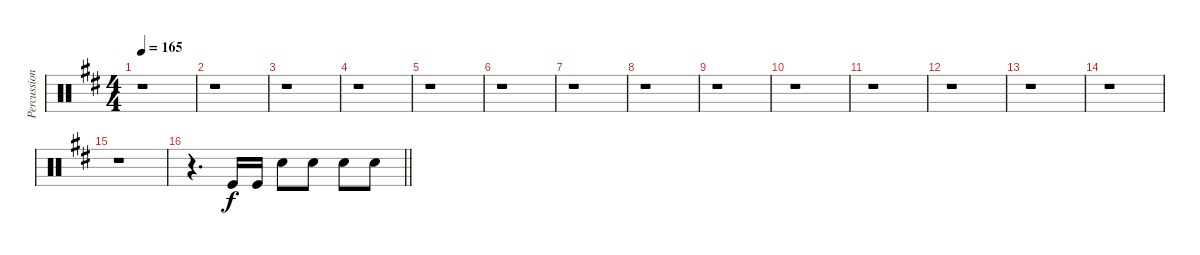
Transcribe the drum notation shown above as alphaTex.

\track ("Percussion" "Percussion") {instrument percussion}
\staff {score}
\articulation defaults
\ts (4 4)
\tempo 165
\clef neutral
\ks d
r.1{dy f} |
r.1 |
r.1 |
r.1 |
r.1 |
r.1 |
r.1 |
r.1 |
r.1 |
r.1 |
r.1 |
r.1 |
r.1 |
r.1 |
r.1 |
\barLineRight lightlight
r.4{d} "Kick (hit)".16 "Kick (hit)".16 "Electric Snare (hit)".8 "Electric Snare (hit)".8 "Electric Snare (hit)".8 "Electric Snare (hit)".8
